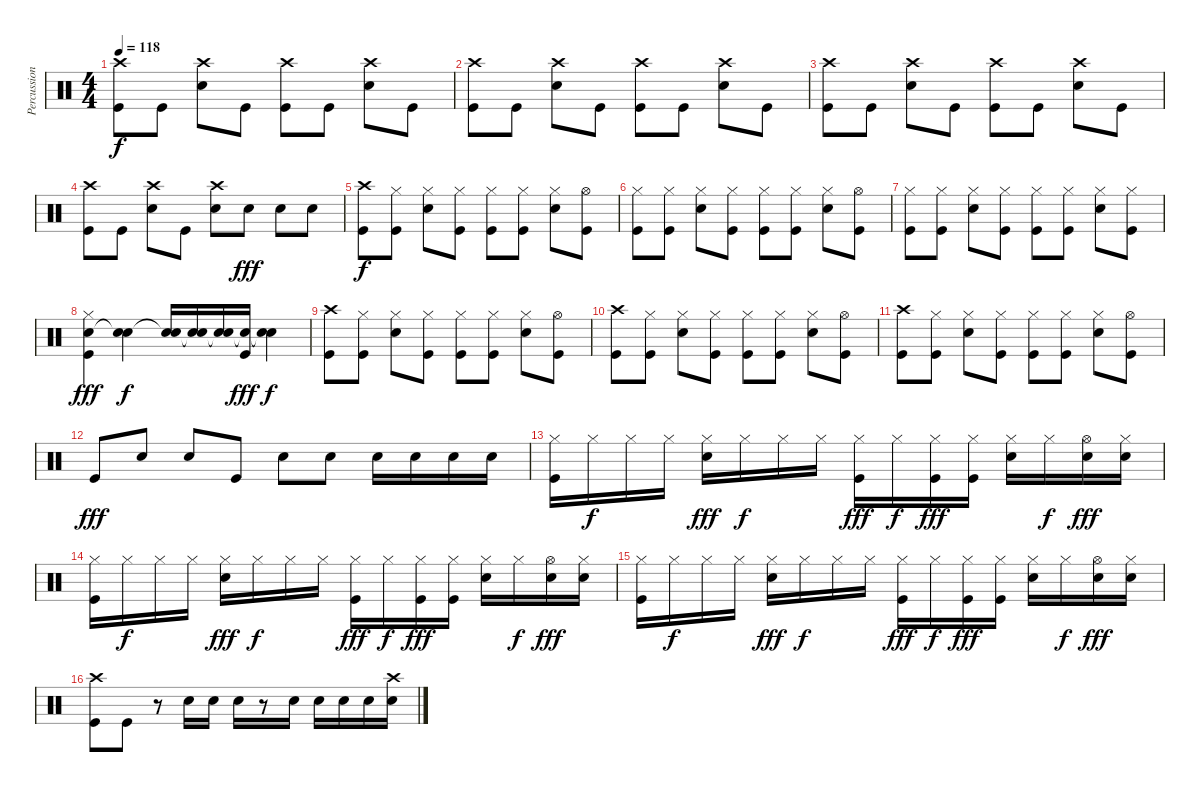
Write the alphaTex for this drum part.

\track ("Percussion" "Percussion") {instrument percussion}
\staff {score}
\articulation defaults
\ts (4 4)
\tempo 118
\clef neutral
\ks c
("Crash high (hit)" "Kick (hit)").8{dy f} "Kick (hit)".8 ("Crash high (hit)" "Snare (hit) 2").8 "Kick (hit)".8 ("Crash high (hit)" "Kick (hit)").8 "Kick (hit)".8 ("Crash high (hit)" "Snare (hit) 2").8 "Kick (hit)".8 |
("Crash high (hit)" "Kick (hit)").8 "Kick (hit)".8 ("Crash high (hit)" "Snare (hit) 2").8 "Kick (hit)".8 ("Crash high (hit)" "Kick (hit)").8 "Kick (hit)".8 ("Crash high (hit)" "Snare (hit) 2").8 "Kick (hit)".8 |
("Crash high (hit)" "Kick (hit)").8 "Kick (hit)".8 ("Crash high (hit)" "Snare (hit) 2").8 "Kick (hit)".8 ("Crash high (hit)" "Kick (hit)").8 "Kick (hit)".8 ("Crash high (hit)" "Snare (hit) 2").8 "Kick (hit)".8 |
("Crash high (hit)" "Kick (hit)").8 "Kick (hit)".8 ("Crash high (hit)" "Snare (hit) 2").8 "Kick (hit)".8 ("Crash high (hit)" "Snare (hit) 2").8 "Snare (hit) 2".8{dy fff} "Snare (hit) 2".8 "Snare (hit) 2".8 |
("Kick (hit)" "Crash high (hit)").8{dy f} ("Kick (hit)" "Hi-Hat (closed)").8 ("Snare (hit) 2" "Hi-Hat (closed)").8 ("Kick (hit)" "Hi-Hat (closed)").8 ("Kick (hit)" "Hi-Hat (closed)").8 ("Kick (hit)" "Hi-Hat (closed)").8 ("Snare (hit) 2" "Hi-Hat (closed)").8 ("Kick (hit)" "Hi-Hat (open)").8 |
("Kick (hit)" "Hi-Hat (closed)").8 ("Kick (hit)" "Hi-Hat (closed)").8 ("Snare (hit) 2" "Hi-Hat (closed)").8 ("Kick (hit)" "Hi-Hat (closed)").8 ("Kick (hit)" "Hi-Hat (closed)").8 ("Kick (hit)" "Hi-Hat (closed)").8 ("Snare (hit) 2" "Hi-Hat (closed)").8 ("Kick (hit)" "Hi-Hat (open)").8 |
("Kick (hit)" "Hi-Hat (closed)").8 ("Kick (hit)" "Hi-Hat (closed)").8 ("Snare (hit) 2" "Hi-Hat (closed)").8 ("Kick (hit)" "Hi-Hat (closed)").8 ("Kick (hit)" "Hi-Hat (closed)").8 ("Kick (hit)" "Hi-Hat (closed)").8 ("Snare (hit) 2" "Hi-Hat (closed)").8 ("Kick (hit)" "Hi-Hat (closed)").8 |
("Kick (hit)" "Snare (hit) 2" "Hi-Hat (closed)").4{dy fff} ("Snare (hit) 2" "Snare (hit)"{t}).4{dy f} ("Snare (hit) 2" "Snare (hit)"{t}).16 ("Snare (hit) 2" "Snare (hit)"{t}).16 ("Snare (hit) 2" "Snare (hit)"{t}).16 ("Kick (hit)" "Snare (hit)"{t}).16{dy fff} ("Snare (hit) 2" "Snare (hit)"{t}).4{dy f} |
("Kick (hit)" "Crash high (hit)").8 ("Kick (hit)" "Hi-Hat (closed)").8 ("Snare (hit) 2" "Hi-Hat (closed)").8 ("Kick (hit)" "Hi-Hat (closed)").8 ("Kick (hit)" "Hi-Hat (closed)").8 ("Kick (hit)" "Hi-Hat (closed)").8 ("Snare (hit) 2" "Hi-Hat (closed)").8 ("Kick (hit)" "Hi-Hat (open)").8 |
("Kick (hit)" "Crash high (hit)").8 ("Kick (hit)" "Hi-Hat (closed)").8 ("Snare (hit) 2" "Hi-Hat (closed)").8 ("Kick (hit)" "Hi-Hat (closed)").8 ("Kick (hit)" "Hi-Hat (closed)").8 ("Kick (hit)" "Hi-Hat (closed)").8 ("Snare (hit) 2" "Hi-Hat (closed)").8 ("Kick (hit)" "Hi-Hat (open)").8 |
("Kick (hit)" "Crash high (hit)").8 ("Kick (hit)" "Hi-Hat (closed)").8 ("Snare (hit) 2" "Hi-Hat (closed)").8 ("Kick (hit)" "Hi-Hat (closed)").8 ("Kick (hit)" "Hi-Hat (closed)").8 ("Kick (hit)" "Hi-Hat (closed)").8 ("Snare (hit) 2" "Hi-Hat (closed)").8 ("Kick (hit)" "Hi-Hat (open)").8 |
"Kick (hit)".8{dy fff} "Snare (hit) 2".8 "Snare (hit) 2".8 "Kick (hit)".8 "Snare (hit) 2".8 "Snare (hit) 2".8 "Snare (hit) 2".16 "Snare (hit) 2".16 "Snare (hit) 2".16 "Snare (hit) 2".16 |
("Kick (hit)" "Hi-Hat (closed)").16 "Hi-Hat (closed)".16{dy f} "Hi-Hat (closed)".16 "Hi-Hat (closed)".16 ("Snare (hit) 2" "Hi-Hat (closed)").16{dy fff} "Hi-Hat (closed)".16{dy f} "Hi-Hat (closed)".16 "Hi-Hat (closed)".16 ("Kick (hit)" "Hi-Hat (closed)").16{dy fff} "Hi-Hat (closed)".16{dy f} ("Kick (hit)" "Hi-Hat (closed)").16{dy fff} ("Kick (hit)" "Hi-Hat (closed)").16 ("Snare (hit) 2" "Hi-Hat (closed)").16 "Hi-Hat (closed)".16{dy f} ("Snare (hit) 2" "Hi-Hat (open)").16{dy fff} ("Snare (hit) 2" "Hi-Hat (closed)").16 |
("Kick (hit)" "Hi-Hat (closed)").16 "Hi-Hat (closed)".16{dy f} "Hi-Hat (closed)".16 "Hi-Hat (closed)".16 ("Snare (hit) 2" "Hi-Hat (closed)").16{dy fff} "Hi-Hat (closed)".16{dy f} "Hi-Hat (closed)".16 "Hi-Hat (closed)".16 ("Kick (hit)" "Hi-Hat (closed)").16{dy fff} "Hi-Hat (closed)".16{dy f} ("Kick (hit)" "Hi-Hat (closed)").16{dy fff} ("Kick (hit)" "Hi-Hat (closed)").16 ("Snare (hit) 2" "Hi-Hat (closed)").16 "Hi-Hat (closed)".16{dy f} ("Snare (hit) 2" "Hi-Hat (open)").16{dy fff} ("Snare (hit) 2" "Hi-Hat (closed)").16 |
("Kick (hit)" "Hi-Hat (closed)").16 "Hi-Hat (closed)".16{dy f} "Hi-Hat (closed)".16 "Hi-Hat (closed)".16 ("Snare (hit) 2" "Hi-Hat (closed)").16{dy fff} "Hi-Hat (closed)".16{dy f} "Hi-Hat (closed)".16 "Hi-Hat (closed)".16 ("Kick (hit)" "Hi-Hat (closed)").16{dy fff} "Hi-Hat (closed)".16{dy f} ("Kick (hit)" "Hi-Hat (closed)").16{dy fff} ("Kick (hit)" "Hi-Hat (closed)").16 ("Snare (hit) 2" "Hi-Hat (closed)").16 "Hi-Hat (closed)".16{dy f} ("Snare (hit) 2" "Hi-Hat (open)").16{dy fff} ("Snare (hit) 2" "Hi-Hat (closed)").16 |
("Kick (hit)" "Crash high (hit)").8 "Kick (hit)".8 r.8 "Snare (hit) 2".16 "Snare (hit) 2".16 "Snare (hit) 2".16 r.8 "Snare (hit) 2".16 "Snare (hit) 2".16 "Snare (hit) 2".16 "Snare (hit) 2".16 ("Snare (hit) 2" "Crash high (hit)").16
